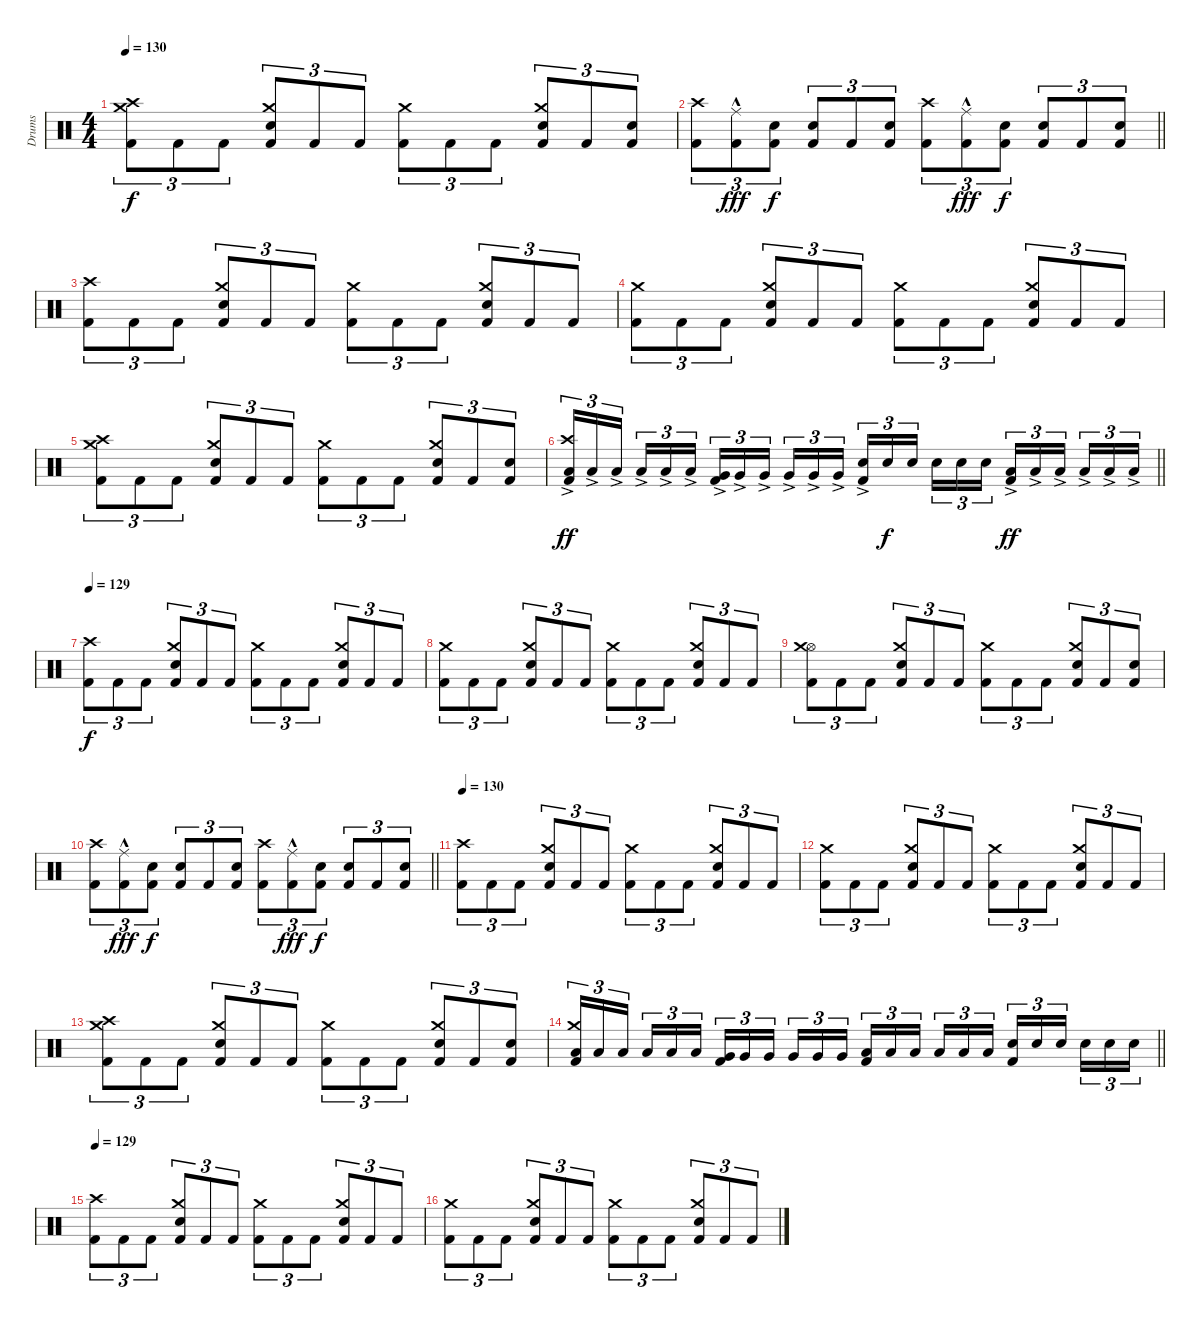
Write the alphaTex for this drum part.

\track ("Drums" "Drums") {instrument percussion}
\staff {score}
\articulation defaults
\ts (4 4)
\tempo 130
\clef neutral
\ks c
("Kick (hit) 2" "Crash medium (hit)" "Crash high (hit)").8{tu (3 2) dy f} "Kick (hit) 2".8{tu (3 2)} "Kick (hit) 2".8{tu (3 2)} ("Kick (hit) 2" "Snare (hit) 2" "Crash medium (hit)").8{tu (3 2)} "Kick (hit) 2".8{tu (3 2)} "Kick (hit) 2".8{tu (3 2)} ("Kick (hit) 2" "Crash medium (hit)").8{tu (3 2)} "Kick (hit) 2".8{tu (3 2)} "Kick (hit) 2".8{tu (3 2)} ("Kick (hit) 2" "Snare (hit) 2" "Crash medium (hit)").8{tu (3 2)} "Kick (hit) 2".8{tu (3 2)} ("Kick (hit) 2" "Snare (hit) 2").8{tu (3 2)} |
\barLineRight lightlight
("Kick (hit) 2" "Crash high (hit)").8{tu (3 2)} ("Kick (hit) 2" "Ride (middle)"{hac}).8{tu (3 2) dy fff} ("Kick (hit) 2" "Snare (hit) 2").8{tu (3 2) dy f} ("Kick (hit) 2" "Snare (hit) 2").8{tu (3 2)} "Kick (hit) 2".8{tu (3 2)} ("Kick (hit) 2" "Snare (hit) 2").8{tu (3 2)} ("Kick (hit) 2" "Crash high (hit)").8{tu (3 2)} ("Kick (hit) 2" "Ride (middle)"{hac}).8{tu (3 2) dy fff} ("Kick (hit) 2" "Snare (hit) 2").8{tu (3 2) dy f} ("Kick (hit) 2" "Snare (hit) 2").8{tu (3 2)} "Kick (hit) 2".8{tu (3 2)} ("Kick (hit) 2" "Snare (hit) 2").8{tu (3 2)} |
\section ("" "")
("Kick (hit) 2" "Crash high (hit)").8{tu (3 2)} "Kick (hit) 2".8{tu (3 2)} "Kick (hit) 2".8{tu (3 2)} ("Kick (hit) 2" "Snare (hit) 2" "Crash medium (hit)").8{tu (3 2)} "Kick (hit) 2".8{tu (3 2)} "Kick (hit) 2".8{tu (3 2)} ("Kick (hit) 2" "Crash medium (hit)").8{tu (3 2)} "Kick (hit) 2".8{tu (3 2)} "Kick (hit) 2".8{tu (3 2)} ("Kick (hit) 2" "Snare (hit) 2" "Crash medium (hit)").8{tu (3 2)} "Kick (hit) 2".8{tu (3 2)} "Kick (hit) 2".8{tu (3 2)} |
("Kick (hit) 2" "Crash medium (hit)").8{tu (3 2)} "Kick (hit) 2".8{tu (3 2)} "Kick (hit) 2".8{tu (3 2)} ("Kick (hit) 2" "Snare (hit) 2" "Crash medium (hit)").8{tu (3 2)} "Kick (hit) 2".8{tu (3 2)} "Kick (hit) 2".8{tu (3 2)} ("Kick (hit) 2" "Crash medium (hit)").8{tu (3 2)} "Kick (hit) 2".8{tu (3 2)} "Kick (hit) 2".8{tu (3 2)} ("Kick (hit) 2" "Snare (hit) 2" "Crash medium (hit)").8{tu (3 2)} "Kick (hit) 2".8{tu (3 2)} "Kick (hit) 2".8{tu (3 2)} |
("Kick (hit) 2" "Crash medium (hit)" "Crash high (hit)").8{tu (3 2)} "Kick (hit) 2".8{tu (3 2)} "Kick (hit) 2".8{tu (3 2)} ("Kick (hit) 2" "Snare (hit) 2" "Crash medium (hit)").8{tu (3 2)} "Kick (hit) 2".8{tu (3 2)} "Kick (hit) 2".8{tu (3 2)} ("Kick (hit) 2" "Crash medium (hit)").8{tu (3 2)} "Kick (hit) 2".8{tu (3 2)} "Kick (hit) 2".8{tu (3 2)} ("Kick (hit) 2" "Snare (hit) 2" "Crash medium (hit)").8{tu (3 2)} "Kick (hit) 2".8{tu (3 2)} ("Kick (hit) 2" "Snare (hit) 2").8{tu (3 2)} |
\barLineRight lightlight
("Kick (hit) 2"{ac} "Low Tom (hit)"{ac} "Crash high (hit)"{ac}).16{tu (3 2) dy ff} "Low Tom (hit)"{ac}.16{tu (3 2)} "Low Tom (hit)"{ac}.16{tu (3 2) beam splitsecondary} "Low Tom (hit)"{ac}.16{tu (3 2)} "Low Tom (hit)"{ac}.16{tu (3 2)} "Low Tom (hit)"{ac}.16{tu (3 2)} ("Kick (hit) 2"{ac} "Very Low Tom (hit)"{ac}).16{tu (3 2)} "Very Low Tom (hit)"{ac}.16{tu (3 2)} "Very Low Tom (hit)"{ac}.16{tu (3 2) beam splitsecondary} "Very Low Tom (hit)"{ac}.16{tu (3 2)} "Very Low Tom (hit)"{ac}.16{tu (3 2)} "Very Low Tom (hit)"{ac}.16{tu (3 2)} ("Kick (hit) 2"{ac} "Snare (hit) 2").16{tu (3 2)} "Snare (hit) 2".16{tu (3 2) dy f} "Snare (hit) 2".16{tu (3 2) beam splitsecondary} "Snare (hit) 2".16{tu (3 2)} "Snare (hit) 2".16{tu (3 2)} "Snare (hit) 2".16{tu (3 2)} ("Kick (hit) 2"{ac} "Low Floor Tom (hit)"{ac}).16{tu (3 2) dy ff} "Low Floor Tom (hit)"{ac}.16{tu (3 2)} "Low Floor Tom (hit)"{ac}.16{tu (3 2) beam splitsecondary} "Low Floor Tom (hit)"{ac}.16{tu (3 2)} "Low Floor Tom (hit)"{ac}.16{tu (3 2)} "Low Floor Tom (hit)"{ac}.16{tu (3 2)} |
\section ("" "")
\tempo 129
("Kick (hit) 2" "Crash high (hit)").8{tu (3 2) dy f volume 9} "Kick (hit) 2".8{tu (3 2)} "Kick (hit) 2".8{tu (3 2)} ("Kick (hit) 2" "Snare (hit) 2" "Crash medium (hit)").8{tu (3 2)} "Kick (hit) 2".8{tu (3 2)} "Kick (hit) 2".8{tu (3 2)} ("Kick (hit) 2" "Crash medium (hit)").8{tu (3 2)} "Kick (hit) 2".8{tu (3 2)} "Kick (hit) 2".8{tu (3 2)} ("Kick (hit) 2" "Snare (hit) 2" "Crash medium (hit)").8{tu (3 2)} "Kick (hit) 2".8{tu (3 2)} "Kick (hit) 2".8{tu (3 2)} |
("Kick (hit) 2" "Crash medium (hit)").8{tu (3 2)} "Kick (hit) 2".8{tu (3 2)} "Kick (hit) 2".8{tu (3 2)} ("Kick (hit) 2" "Snare (hit) 2" "Crash medium (hit)").8{tu (3 2)} "Kick (hit) 2".8{tu (3 2)} "Kick (hit) 2".8{tu (3 2)} ("Kick (hit) 2" "Crash medium (hit)").8{tu (3 2)} "Kick (hit) 2".8{tu (3 2)} "Kick (hit) 2".8{tu (3 2)} ("Kick (hit) 2" "Snare (hit) 2" "Crash medium (hit)").8{tu (3 2)} "Kick (hit) 2".8{tu (3 2)} "Kick (hit) 2".8{tu (3 2)} |
("Kick (hit) 2" "Hi-Hat (open)" "Crash medium (hit)").8{tu (3 2)} "Kick (hit) 2".8{tu (3 2)} "Kick (hit) 2".8{tu (3 2)} ("Kick (hit) 2" "Snare (hit) 2" "Crash medium (hit)").8{tu (3 2)} "Kick (hit) 2".8{tu (3 2)} "Kick (hit) 2".8{tu (3 2)} ("Kick (hit) 2" "Crash medium (hit)").8{tu (3 2)} "Kick (hit) 2".8{tu (3 2)} "Kick (hit) 2".8{tu (3 2)} ("Kick (hit) 2" "Snare (hit) 2" "Crash medium (hit)").8{tu (3 2)} "Kick (hit) 2".8{tu (3 2)} ("Kick (hit) 2" "Snare (hit) 2").8{tu (3 2)} |
\barLineRight lightlight
("Kick (hit) 2" "Crash high (hit)").8{tu (3 2)} ("Kick (hit) 2" "Ride (middle)"{hac}).8{tu (3 2) dy fff} ("Kick (hit) 2" "Snare (hit) 2").8{tu (3 2) dy f} ("Kick (hit) 2" "Snare (hit) 2").8{tu (3 2)} "Kick (hit) 2".8{tu (3 2)} ("Kick (hit) 2" "Snare (hit) 2").8{tu (3 2)} ("Kick (hit) 2" "Crash high (hit)").8{tu (3 2)} ("Kick (hit) 2" "Ride (middle)"{hac}).8{tu (3 2) dy fff} ("Kick (hit) 2" "Snare (hit) 2").8{tu (3 2) dy f} ("Kick (hit) 2" "Snare (hit) 2").8{tu (3 2)} "Kick (hit) 2".8{tu (3 2)} ("Kick (hit) 2" "Snare (hit) 2").8{tu (3 2)} |
\section ("" "")
\tempo 130
("Kick (hit) 2" "Crash high (hit)").8{tu (3 2) volume 5} "Kick (hit) 2".8{tu (3 2)} "Kick (hit) 2".8{tu (3 2)} ("Kick (hit) 2" "Snare (hit) 2" "Crash medium (hit)").8{tu (3 2)} "Kick (hit) 2".8{tu (3 2)} "Kick (hit) 2".8{tu (3 2)} ("Kick (hit) 2" "Crash medium (hit)").8{tu (3 2)} "Kick (hit) 2".8{tu (3 2)} "Kick (hit) 2".8{tu (3 2)} ("Kick (hit) 2" "Snare (hit) 2" "Crash medium (hit)").8{tu (3 2)} "Kick (hit) 2".8{tu (3 2)} "Kick (hit) 2".8{tu (3 2)} |
("Kick (hit) 2" "Crash medium (hit)").8{tu (3 2)} "Kick (hit) 2".8{tu (3 2)} "Kick (hit) 2".8{tu (3 2)} ("Kick (hit) 2" "Snare (hit) 2" "Crash medium (hit)").8{tu (3 2)} "Kick (hit) 2".8{tu (3 2)} "Kick (hit) 2".8{tu (3 2)} ("Kick (hit) 2" "Crash medium (hit)").8{tu (3 2)} "Kick (hit) 2".8{tu (3 2)} "Kick (hit) 2".8{tu (3 2)} ("Kick (hit) 2" "Snare (hit) 2" "Crash medium (hit)").8{tu (3 2)} "Kick (hit) 2".8{tu (3 2)} "Kick (hit) 2".8{tu (3 2)} |
("Kick (hit) 2" "Crash medium (hit)" "Crash high (hit)").8{tu (3 2)} "Kick (hit) 2".8{tu (3 2)} "Kick (hit) 2".8{tu (3 2)} ("Kick (hit) 2" "Snare (hit) 2" "Crash medium (hit)").8{tu (3 2)} "Kick (hit) 2".8{tu (3 2)} "Kick (hit) 2".8{tu (3 2)} ("Kick (hit) 2" "Crash medium (hit)").8{tu (3 2)} "Kick (hit) 2".8{tu (3 2)} "Kick (hit) 2".8{tu (3 2)} ("Kick (hit) 2" "Snare (hit) 2" "Crash medium (hit)").8{tu (3 2)} "Kick (hit) 2".8{tu (3 2)} ("Kick (hit) 2" "Snare (hit) 2").8{tu (3 2)} |
\barLineRight lightlight
("Kick (hit) 2" "Low Tom (hit)" "Crash medium (hit)").16{tu (3 2)} "Low Tom (hit)".16{tu (3 2)} "Low Tom (hit)".16{tu (3 2) beam splitsecondary} "Low Tom (hit)".16{tu (3 2)} "Low Tom (hit)".16{tu (3 2)} "Low Tom (hit)".16{tu (3 2)} ("Kick (hit) 2" "Very Low Tom (hit)").16{tu (3 2)} "Very Low Tom (hit)".16{tu (3 2)} "Very Low Tom (hit)".16{tu (3 2) beam splitsecondary} "Very Low Tom (hit)".16{tu (3 2)} "Very Low Tom (hit)".16{tu (3 2)} "Very Low Tom (hit)".16{tu (3 2)} ("Kick (hit) 2" "Low Floor Tom (hit)").16{tu (3 2)} "Low Floor Tom (hit)".16{tu (3 2)} "Low Floor Tom (hit)".16{tu (3 2) beam splitsecondary} "Low Floor Tom (hit)".16{tu (3 2)} "Low Floor Tom (hit)".16{tu (3 2)} "Low Floor Tom (hit)".16{tu (3 2)} ("Kick (hit) 2" "Snare (hit) 2").16{tu (3 2)} "Snare (hit) 2".16{tu (3 2)} "Snare (hit) 2".16{tu (3 2) beam splitsecondary} "Snare (hit) 2".16{tu (3 2)} "Snare (hit) 2".16{tu (3 2)} "Snare (hit) 2".16{tu (3 2)} |
\section ("" "")
\tempo 129
("Kick (hit) 2" "Crash high (hit)").8{tu (3 2) volume 0} "Kick (hit) 2".8{tu (3 2)} "Kick (hit) 2".8{tu (3 2)} ("Kick (hit) 2" "Snare (hit) 2" "Crash medium (hit)").8{tu (3 2)} "Kick (hit) 2".8{tu (3 2)} "Kick (hit) 2".8{tu (3 2)} ("Kick (hit) 2" "Crash medium (hit)").8{tu (3 2)} "Kick (hit) 2".8{tu (3 2)} "Kick (hit) 2".8{tu (3 2)} ("Kick (hit) 2" "Snare (hit) 2" "Crash medium (hit)").8{tu (3 2)} "Kick (hit) 2".8{tu (3 2)} "Kick (hit) 2".8{tu (3 2)} |
("Kick (hit) 2" "Crash medium (hit)").8{tu (3 2)} "Kick (hit) 2".8{tu (3 2)} "Kick (hit) 2".8{tu (3 2)} ("Kick (hit) 2" "Snare (hit) 2" "Crash medium (hit)").8{tu (3 2)} "Kick (hit) 2".8{tu (3 2)} "Kick (hit) 2".8{tu (3 2)} ("Kick (hit) 2" "Crash medium (hit)").8{tu (3 2)} "Kick (hit) 2".8{tu (3 2)} "Kick (hit) 2".8{tu (3 2)} ("Kick (hit) 2" "Snare (hit) 2" "Crash medium (hit)").8{tu (3 2)} "Kick (hit) 2".8{tu (3 2)} "Kick (hit) 2".8{tu (3 2)}
